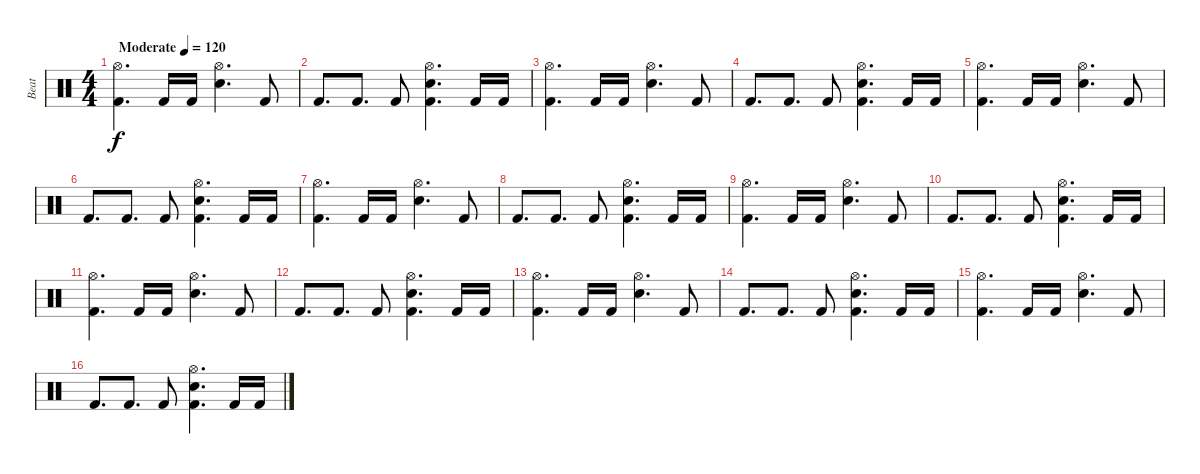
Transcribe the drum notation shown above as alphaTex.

\track ("Beat" "Beat") {instrument percussion}
\staff {score}
\articulation defaults
\ts (4 4)
\tempo (120 "Moderate")
\clef neutral
\ks c
("Hi-Hat (open)" "Kick (hit) 2").4{d dy f} "Kick (hit) 2".16 "Kick (hit) 2".16 ("Hi-Hat (open)" "Snare (hit) 2").4{d} "Kick (hit) 2".8 |
"Kick (hit) 2".8{d} "Kick (hit) 2".8{d} "Kick (hit) 2".8 ("Hi-Hat (open)" "Kick (hit) 2" "Snare (hit) 2").4{d} "Kick (hit) 2".16 "Kick (hit) 2".16 |
("Hi-Hat (open)" "Kick (hit) 2").4{d} "Kick (hit) 2".16 "Kick (hit) 2".16 ("Hi-Hat (open)" "Snare (hit) 2").4{d} "Kick (hit) 2".8 |
"Kick (hit) 2".8{d} "Kick (hit) 2".8{d} "Kick (hit) 2".8 ("Hi-Hat (open)" "Kick (hit) 2" "Snare (hit) 2").4{d} "Kick (hit) 2".16 "Kick (hit) 2".16 |
("Hi-Hat (open)" "Kick (hit) 2").4{d} "Kick (hit) 2".16 "Kick (hit) 2".16 ("Hi-Hat (open)" "Snare (hit) 2").4{d} "Kick (hit) 2".8 |
"Kick (hit) 2".8{d} "Kick (hit) 2".8{d} "Kick (hit) 2".8 ("Hi-Hat (open)" "Kick (hit) 2" "Snare (hit) 2").4{d} "Kick (hit) 2".16 "Kick (hit) 2".16 |
("Hi-Hat (open)" "Kick (hit) 2").4{d} "Kick (hit) 2".16 "Kick (hit) 2".16 ("Hi-Hat (open)" "Snare (hit) 2").4{d} "Kick (hit) 2".8 |
"Kick (hit) 2".8{d} "Kick (hit) 2".8{d} "Kick (hit) 2".8 ("Hi-Hat (open)" "Kick (hit) 2" "Snare (hit) 2").4{d} "Kick (hit) 2".16 "Kick (hit) 2".16 |
("Hi-Hat (open)" "Kick (hit) 2").4{d} "Kick (hit) 2".16 "Kick (hit) 2".16 ("Hi-Hat (open)" "Snare (hit) 2").4{d} "Kick (hit) 2".8 |
"Kick (hit) 2".8{d} "Kick (hit) 2".8{d} "Kick (hit) 2".8 ("Hi-Hat (open)" "Kick (hit) 2" "Snare (hit) 2").4{d} "Kick (hit) 2".16 "Kick (hit) 2".16 |
("Hi-Hat (open)" "Kick (hit) 2").4{d} "Kick (hit) 2".16 "Kick (hit) 2".16 ("Hi-Hat (open)" "Snare (hit) 2").4{d} "Kick (hit) 2".8 |
"Kick (hit) 2".8{d} "Kick (hit) 2".8{d} "Kick (hit) 2".8 ("Hi-Hat (open)" "Kick (hit) 2" "Snare (hit) 2").4{d} "Kick (hit) 2".16 "Kick (hit) 2".16 |
("Hi-Hat (open)" "Kick (hit) 2").4{d} "Kick (hit) 2".16 "Kick (hit) 2".16 ("Hi-Hat (open)" "Snare (hit) 2").4{d} "Kick (hit) 2".8 |
"Kick (hit) 2".8{d} "Kick (hit) 2".8{d} "Kick (hit) 2".8 ("Hi-Hat (open)" "Kick (hit) 2" "Snare (hit) 2").4{d} "Kick (hit) 2".16 "Kick (hit) 2".16 |
("Hi-Hat (open)" "Kick (hit) 2").4{d} "Kick (hit) 2".16 "Kick (hit) 2".16 ("Hi-Hat (open)" "Snare (hit) 2").4{d} "Kick (hit) 2".8 |
"Kick (hit) 2".8{d} "Kick (hit) 2".8{d} "Kick (hit) 2".8 ("Hi-Hat (open)" "Kick (hit) 2" "Snare (hit) 2").4{d} "Kick (hit) 2".16 "Kick (hit) 2".16
